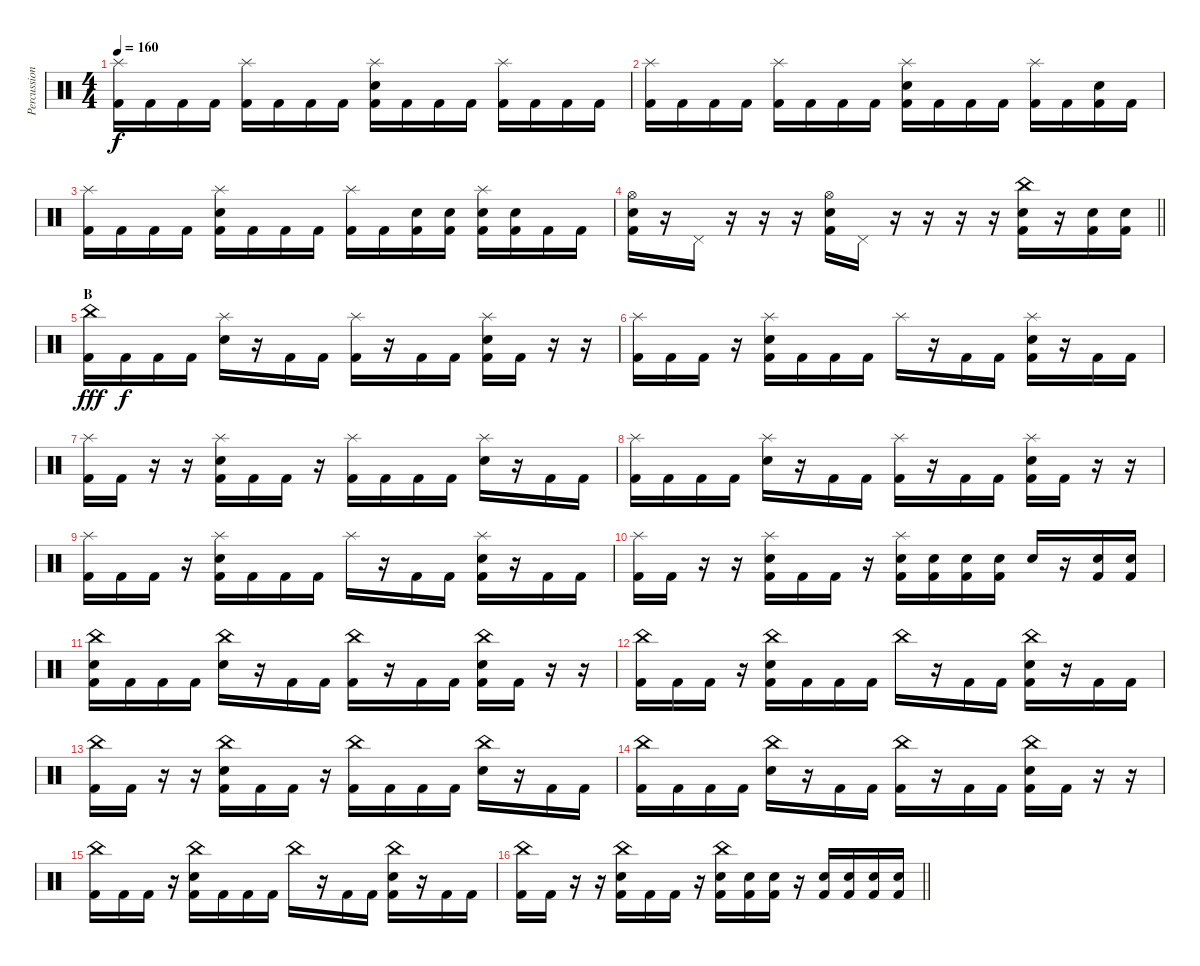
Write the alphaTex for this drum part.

\track ("Percussion" "Percussion") {instrument percussion}
\staff {score}
\articulation defaults
\ts (4 4)
\tempo 160
\clef neutral
\ks c
("Splash (hit)" "Kick (hit) 2").16{dy f} "Kick (hit) 2".16 "Kick (hit) 2".16 "Kick (hit) 2".16 ("Splash (hit)" "Kick (hit) 2").16 "Kick (hit) 2".16 "Kick (hit) 2".16 "Kick (hit) 2".16 ("Splash (hit)" "Electric Snare (hit)" "Kick (hit) 2").16 "Kick (hit) 2".16 "Kick (hit) 2".16 "Kick (hit) 2".16 ("Splash (hit)" "Kick (hit) 2").16 "Kick (hit) 2".16 "Kick (hit) 2".16 "Kick (hit) 2".16 |
("Splash (hit)" "Kick (hit) 2").16 "Kick (hit) 2".16 "Kick (hit) 2".16 "Kick (hit) 2".16 ("Splash (hit)" "Kick (hit) 2").16 "Kick (hit) 2".16 "Kick (hit) 2".16 "Kick (hit) 2".16 ("Splash (hit)" "Electric Snare (hit)" "Kick (hit) 2").16 "Kick (hit) 2".16 "Kick (hit) 2".16 "Kick (hit) 2".16 ("Splash (hit)" "Kick (hit) 2").16 "Kick (hit) 2".16 ("Electric Snare (hit)" "Kick (hit) 2").16 "Kick (hit) 2".16 |
("Splash (hit)" "Kick (hit) 2").16 "Kick (hit) 2".16 "Kick (hit) 2".16 "Kick (hit) 2".16 ("Splash (hit)" "Electric Snare (hit)" "Kick (hit) 2").16 "Kick (hit) 2".16 "Kick (hit) 2".16 "Kick (hit) 2".16 ("Splash (hit)" "Kick (hit) 2").16 "Kick (hit) 2".16 ("Electric Snare (hit)" "Kick (hit) 2").16 ("Electric Snare (hit)" "Kick (hit) 2").16 ("Splash (hit)" "Electric Snare (hit)" "Kick (hit) 2").16 ("Electric Snare (hit)" "Kick (hit) 2").16 "Kick (hit) 2".16 "Kick (hit) 2".16 |
\barLineRight lightlight
("Hi-Hat (open)" "Electric Snare (hit)" "Kick (hit) 2").16 r.16 "Pedal Hi-Hat (hit)".16 r.16 r.16 r.16 ("Hi-Hat (open)" "Electric Snare (hit)" "Kick (hit) 2").16 "Pedal Hi-Hat (hit)".16 r.16 r.16 r.16 r.16 ("China (hit)" "Electric Snare (hit)" "Kick (hit) 2").16 r.16 ("Electric Snare (hit)" "Kick (hit) 2").16 ("Electric Snare (hit)" "Kick (hit) 2").16 |
\section ("" "B")
("China (hit)" "Kick (hit) 2").16{dy fff} "Kick (hit) 2".16{dy f} "Kick (hit) 2".16 "Kick (hit) 2".16 ("Splash (hit)" "Electric Snare (hit)").16 r.16 "Kick (hit) 2".16 "Kick (hit) 2".16 ("Splash (hit)" "Kick (hit) 2").16 r.16 "Kick (hit) 2".16 "Kick (hit) 2".16 ("Splash (hit)" "Electric Snare (hit)" "Kick (hit) 2").16 "Kick (hit) 2".16 r.16 r.16 |
("Splash (hit)" "Kick (hit) 2").16 "Kick (hit) 2".16 "Kick (hit) 2".16 r.16 ("Splash (hit)" "Electric Snare (hit)" "Kick (hit) 2").16 "Kick (hit) 2".16 "Kick (hit) 2".16 "Kick (hit) 2".16 "Splash (hit)".16 r.16 "Kick (hit) 2".16 "Kick (hit) 2".16 ("Splash (hit)" "Electric Snare (hit)" "Kick (hit) 2").16 r.16 "Kick (hit) 2".16 "Kick (hit) 2".16 |
("Splash (hit)" "Kick (hit) 2").16 "Kick (hit) 2".16 r.16 r.16 ("Splash (hit)" "Electric Snare (hit)" "Kick (hit) 2").16 "Kick (hit) 2".16 "Kick (hit) 2".16 r.16 ("Splash (hit)" "Kick (hit) 2").16 "Kick (hit) 2".16 "Kick (hit) 2".16 "Kick (hit) 2".16 ("Splash (hit)" "Electric Snare (hit)").16 r.16 "Kick (hit) 2".16 "Kick (hit) 2".16 |
("Splash (hit)" "Kick (hit) 2").16 "Kick (hit) 2".16 "Kick (hit) 2".16 "Kick (hit) 2".16 ("Splash (hit)" "Electric Snare (hit)").16 r.16 "Kick (hit) 2".16 "Kick (hit) 2".16 ("Splash (hit)" "Kick (hit) 2").16 r.16 "Kick (hit) 2".16 "Kick (hit) 2".16 ("Splash (hit)" "Electric Snare (hit)" "Kick (hit) 2").16 "Kick (hit) 2".16 r.16 r.16 |
("Splash (hit)" "Kick (hit) 2").16 "Kick (hit) 2".16 "Kick (hit) 2".16 r.16 ("Splash (hit)" "Electric Snare (hit)" "Kick (hit) 2").16 "Kick (hit) 2".16 "Kick (hit) 2".16 "Kick (hit) 2".16 "Splash (hit)".16 r.16 "Kick (hit) 2".16 "Kick (hit) 2".16 ("Splash (hit)" "Electric Snare (hit)" "Kick (hit) 2").16 r.16 "Kick (hit) 2".16 "Kick (hit) 2".16 |
("Splash (hit)" "Kick (hit) 2").16 "Kick (hit) 2".16 r.16 r.16 ("Splash (hit)" "Electric Snare (hit)" "Kick (hit) 2").16 "Kick (hit) 2".16 "Kick (hit) 2".16 r.16 ("Splash (hit)" "Electric Snare (hit)" "Kick (hit) 2").16 ("Electric Snare (hit)" "Kick (hit) 2").16 ("Electric Snare (hit)" "Kick (hit) 2").16 ("Electric Snare (hit)" "Kick (hit) 2").16 "Electric Snare (hit)".16 r.16 ("Electric Snare (hit)" "Kick (hit) 2").16 ("Electric Snare (hit)" "Kick (hit) 2").16 |
("China (hit)" "Electric Snare (hit)" "Kick (hit) 2").16 "Kick (hit) 2".16 "Kick (hit) 2".16 "Kick (hit) 2".16 ("China (hit)" "Electric Snare (hit)").16 r.16 "Kick (hit) 2".16 "Kick (hit) 2".16 ("China (hit)" "Kick (hit) 2").16 r.16 "Kick (hit) 2".16 "Kick (hit) 2".16 ("China (hit)" "Electric Snare (hit)" "Kick (hit) 2").16 "Kick (hit) 2".16 r.16 r.16 |
("China (hit)" "Kick (hit) 2").16 "Kick (hit) 2".16 "Kick (hit) 2".16 r.16 ("China (hit)" "Electric Snare (hit)" "Kick (hit) 2").16 "Kick (hit) 2".16 "Kick (hit) 2".16 "Kick (hit) 2".16 "China (hit)".16 r.16 "Kick (hit) 2".16 "Kick (hit) 2".16 ("China (hit)" "Electric Snare (hit)" "Kick (hit) 2").16 r.16 "Kick (hit) 2".16 "Kick (hit) 2".16 |
("China (hit)" "Kick (hit) 2").16 "Kick (hit) 2".16 r.16 r.16 ("China (hit)" "Electric Snare (hit)" "Kick (hit) 2").16 "Kick (hit) 2".16 "Kick (hit) 2".16 r.16 ("China (hit)" "Kick (hit) 2").16 "Kick (hit) 2".16 "Kick (hit) 2".16 "Kick (hit) 2".16 ("China (hit)" "Electric Snare (hit)").16 r.16 "Kick (hit) 2".16 "Kick (hit) 2".16 |
("China (hit)" "Kick (hit) 2").16 "Kick (hit) 2".16 "Kick (hit) 2".16 "Kick (hit) 2".16 ("China (hit)" "Electric Snare (hit)").16 r.16 "Kick (hit) 2".16 "Kick (hit) 2".16 ("China (hit)" "Kick (hit) 2").16 r.16 "Kick (hit) 2".16 "Kick (hit) 2".16 ("China (hit)" "Electric Snare (hit)" "Kick (hit) 2").16 "Kick (hit) 2".16 r.16 r.16 |
("China (hit)" "Kick (hit) 2").16 "Kick (hit) 2".16 "Kick (hit) 2".16 r.16 ("China (hit)" "Electric Snare (hit)" "Kick (hit) 2").16 "Kick (hit) 2".16 "Kick (hit) 2".16 "Kick (hit) 2".16 "China (hit)".16 r.16 "Kick (hit) 2".16 "Kick (hit) 2".16 ("China (hit)" "Electric Snare (hit)" "Kick (hit) 2").16 r.16 "Kick (hit) 2".16 "Kick (hit) 2".16 |
\barLineRight lightlight
("China (hit)" "Kick (hit) 2").16 "Kick (hit) 2".16 r.16 r.16 ("China (hit)" "Electric Snare (hit)" "Kick (hit) 2").16 "Kick (hit) 2".16 "Kick (hit) 2".16 r.16 ("China (hit)" "Electric Snare (hit)" "Kick (hit) 2").16 ("Electric Snare (hit)" "Kick (hit) 2").16 ("Electric Snare (hit)" "Kick (hit) 2").16 r.16 ("Electric Snare (hit)" "Kick (hit) 2").16 ("Electric Snare (hit)" "Kick (hit) 2").16 ("Electric Snare (hit)" "Kick (hit) 2").16 ("Electric Snare (hit)" "Kick (hit) 2").16
